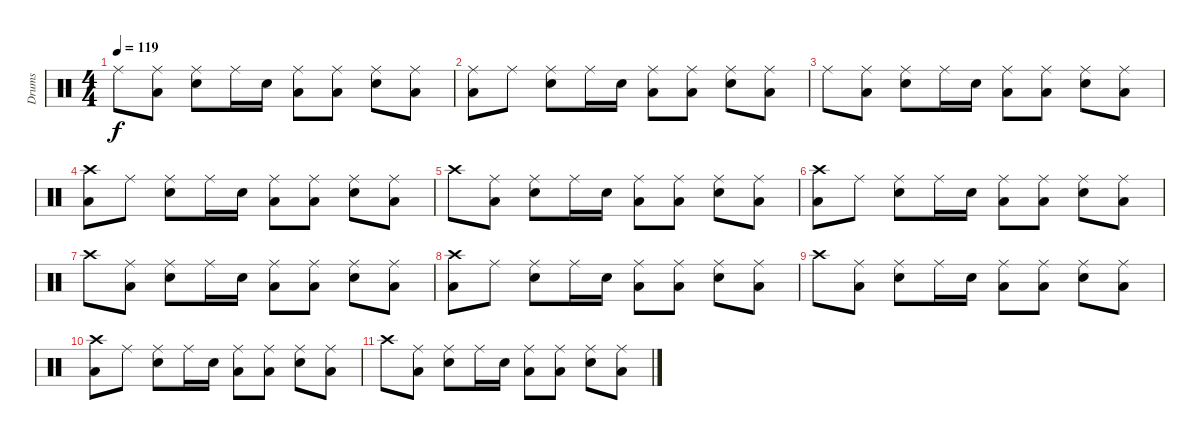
\track ("Drums" "Drums") {instrument percussion}
\staff {score}
\articulation defaults
\ts (4 4)
\tempo 119
\clef neutral
\ks c "Ride (middle)".8{dy f}
("Ride (middle)" "Low Floor Tom (hit)").8 ("Ride (middle)" "Electric Snare (hit)").8 "Ride (middle)".16 "Electric Snare (hit)".16 ("Ride (middle)" "Low Floor Tom (hit)").8 ("Ride (middle)" "Low Floor Tom (hit)").8 ("Ride (middle)" "Electric Snare (hit)").8 ("Ride (middle)" "Low Floor Tom (hit)").8 |
("Ride (middle)" "Low Floor Tom (hit)").8 "Ride (middle)".8 ("Ride (middle)" "Electric Snare (hit)").8 "Ride (middle)".16 "Electric Snare (hit)".16 ("Ride (middle)" "Low Floor Tom (hit)").8 ("Ride (middle)" "Low Floor Tom (hit)").8 ("Ride (middle)" "Electric Snare (hit)").8 ("Ride (middle)" "Low Floor Tom (hit)").8 |
"Ride (middle)".8 ("Ride (middle)" "Low Floor Tom (hit)").8 ("Ride (middle)" "Electric Snare (hit)").8 "Ride (middle)".16 "Electric Snare (hit)".16 ("Ride (middle)" "Low Floor Tom (hit)").8 ("Ride (middle)" "Low Floor Tom (hit)").8 ("Ride (middle)" "Electric Snare (hit)").8 ("Ride (middle)" "Low Floor Tom (hit)").8 |
("Crash high (hit)" "Low Floor Tom (hit)").8 "Ride (middle)".8 ("Ride (middle)" "Electric Snare (hit)").8 "Ride (middle)".16 "Electric Snare (hit)".16 ("Ride (middle)" "Low Floor Tom (hit)").8 ("Ride (middle)" "Low Floor Tom (hit)").8 ("Ride (middle)" "Electric Snare (hit)").8 ("Ride (middle)" "Low Floor Tom (hit)").8 |
"Crash high (hit)".8 ("Ride (middle)" "Low Floor Tom (hit)").8 ("Ride (middle)" "Electric Snare (hit)").8 "Ride (middle)".16 "Electric Snare (hit)".16 ("Ride (middle)" "Low Floor Tom (hit)").8 ("Ride (middle)" "Low Floor Tom (hit)").8 ("Ride (middle)" "Electric Snare (hit)").8 ("Ride (middle)" "Low Floor Tom (hit)").8 |
("Crash high (hit)" "Low Floor Tom (hit)").8 "Ride (middle)".8 ("Ride (middle)" "Electric Snare (hit)").8 "Ride (middle)".16 "Electric Snare (hit)".16 ("Ride (middle)" "Low Floor Tom (hit)").8 ("Ride (middle)" "Low Floor Tom (hit)").8 ("Ride (middle)" "Electric Snare (hit)").8 ("Ride (middle)" "Low Floor Tom (hit)").8 |
"Crash high (hit)".8 ("Ride (middle)" "Low Floor Tom (hit)").8 ("Ride (middle)" "Electric Snare (hit)").8 "Ride (middle)".16 "Electric Snare (hit)".16 ("Ride (middle)" "Low Floor Tom (hit)").8 ("Ride (middle)" "Low Floor Tom (hit)").8 ("Ride (middle)" "Electric Snare (hit)").8 ("Ride (middle)" "Low Floor Tom (hit)").8 |
("Crash high (hit)" "Low Floor Tom (hit)").8{volume 3} "Ride (middle)".8 ("Ride (middle)" "Electric Snare (hit)").8 "Ride (middle)".16 "Electric Snare (hit)".16 ("Ride (middle)" "Low Floor Tom (hit)").8 ("Ride (middle)" "Low Floor Tom (hit)").8 ("Ride (middle)" "Electric Snare (hit)").8 ("Ride (middle)" "Low Floor Tom (hit)").8 |
"Crash high (hit)".8 ("Ride (middle)" "Low Floor Tom (hit)").8 ("Ride (middle)" "Electric Snare (hit)").8 "Ride (middle)".16 "Electric Snare (hit)".16 ("Ride (middle)" "Low Floor Tom (hit)").8 ("Ride (middle)" "Low Floor Tom (hit)").8 ("Ride (middle)" "Electric Snare (hit)").8 ("Ride (middle)" "Low Floor Tom (hit)").8 |
("Crash high (hit)" "Low Floor Tom (hit)").8 "Ride (middle)".8 ("Ride (middle)" "Electric Snare (hit)").8 "Ride (middle)".16 "Electric Snare (hit)".16 ("Ride (middle)" "Low Floor Tom (hit)").8 ("Ride (middle)" "Low Floor Tom (hit)").8 ("Ride (middle)" "Electric Snare (hit)").8 ("Ride (middle)" "Low Floor Tom (hit)").8 |
"Crash high (hit)".8 ("Ride (middle)" "Low Floor Tom (hit)").8 ("Ride (middle)" "Electric Snare (hit)").8 "Ride (middle)".16 "Electric Snare (hit)".16 ("Ride (middle)" "Low Floor Tom (hit)").8 ("Ride (middle)" "Low Floor Tom (hit)").8 ("Ride (middle)" "Electric Snare (hit)").8 ("Ride (middle)" "Low Floor Tom (hit)").8
